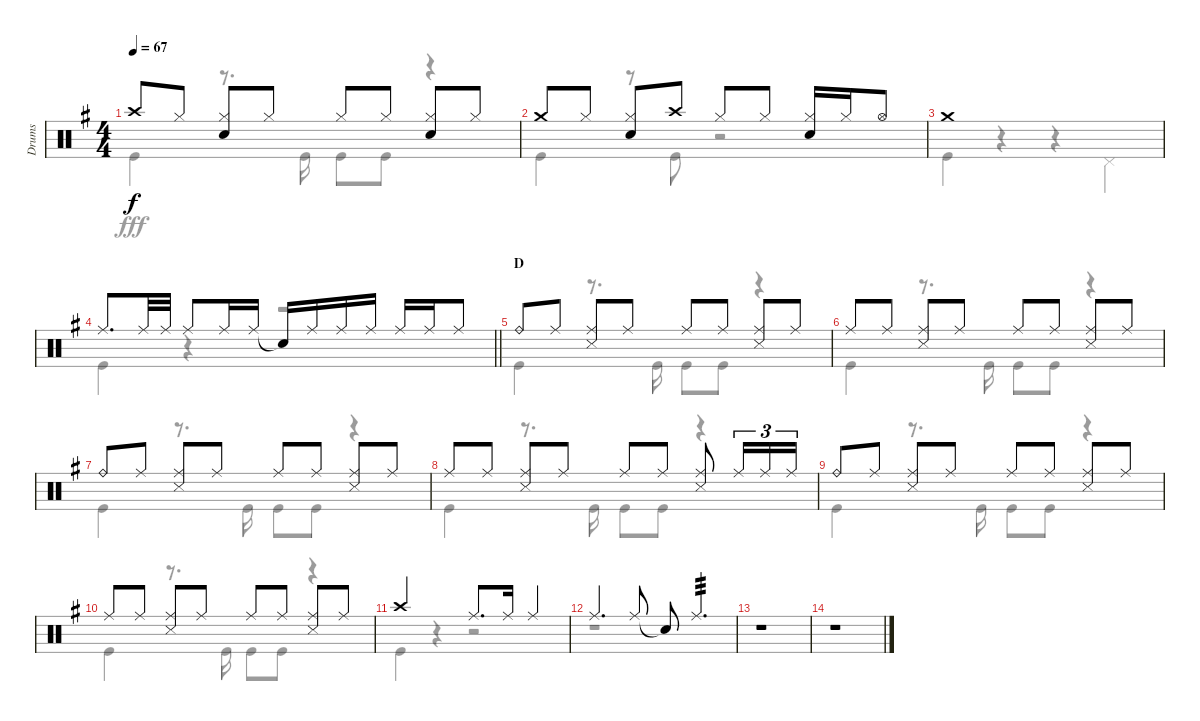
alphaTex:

\track ("Drums" "Drums") {instrument percussion}
\staff {score}
\articulation defaults
\voice
\ts (4 4)
\tempo 67
\clef neutral
\ks g "Crash high (hit)".8{dy f} "Hi-Hat (closed)".8
("Hi-Hat (closed)" "Snare (hit) 2").8 "Hi-Hat (closed)".8 "Hi-Hat (closed)".8 "Hi-Hat (closed)".8 ("Hi-Hat (closed)" "Snare (hit) 2").8 "Hi-Hat (closed)".8 |
"Crash medium (hit)".8 "Hi-Hat (closed)".8 ("Hi-Hat (closed)" "Snare (hit) 2").8 "Crash high (hit)".8 "Hi-Hat (closed)".8 "Hi-Hat (closed)".8 ("Hi-Hat (closed)" "Snare (hit) 2").16 "Hi-Hat (closed)".16 "Hi-Hat (open)".8 |
"Crash medium (hit)".1 |
\barLineRight lightlight "Ride (middle)".8{d} "Ride (middle)".32 "Ride (middle)".32 "Ride (middle)".8 "Ride (middle)".16 "Ride (middle)".16 "Snare (hit)"{t}.16 "Ride (middle)".16 "Ride (middle)".16 "Ride (middle)".16 "Ride (middle)".16 "Ride (middle)".16 "Ride (middle)".8
|
\section ("" "D")
"Ride (bell)".8 "Ride (middle)".8 ("Ride (middle)" "Snare (side stick) 3").8 "Ride (middle)".8 "Ride (middle)".8 "Ride (middle)".8 ("Ride (middle)" "Snare (side stick) 3").8 "Ride (middle)".8 |
"Ride (middle)".8 "Ride (middle)".8 ("Ride (middle)" "Snare (side stick) 3").8 "Ride (middle)".8 "Ride (middle)".8 "Ride (middle)".8 ("Ride (middle)" "Snare (side stick) 3").8 "Ride (middle)".8 |
"Ride (bell)".8 "Ride (middle)".8 ("Ride (middle)" "Snare (side stick) 3").8 "Ride (middle)".8 "Ride (middle)".8 "Ride (middle)".8 ("Ride (middle)" "Snare (side stick) 3").8 "Ride (middle)".8 |
"Ride (middle)".8 "Ride (middle)".8 ("Ride (middle)" "Snare (side stick) 3").8 "Ride (middle)".8 "Ride (middle)".8 "Ride (middle)".8 ("Ride (middle)" "Snare (side stick) 3").8 "Ride (middle)".16{tu (3 2)} "Ride (middle)".16{tu (3 2)} "Ride (middle)".16{tu (3 2)} |
"Ride (bell)".8 "Ride (middle)".8 ("Ride (middle)" "Snare (side stick) 3").8 "Ride (middle)".8 "Ride (middle)".8 "Ride (middle)".8 ("Ride (middle)" "Snare (side stick) 3").8 "Ride (middle)".8 |
"Ride (middle)".8 "Ride (middle)".8 ("Ride (middle)" "Snare (side stick) 3").8 "Ride (middle)".8 "Ride (middle)".8 "Ride (middle)".8 ("Ride (middle)" "Snare (side stick) 3").8 "Ride (middle)".8 |
"Crash high (hit)".2 "Ride (middle)".8{d} "Ride (middle)".16 "Ride (middle)".4 |
"Ride (middle)".4{d} "Ride (middle)".8 "Snare (hit)"{t}.8 "Ride (middle)".4{d tp 3} |
r.1 |
r.1
\voice
\clef neutral
\ottava regular
\simile none
\ks g "Kick (hit)".4{dy fff}
r.8{d} "Kick (hit)".16 "Kick (hit)".8 "Kick (hit)".8 r.4 |
"Kick (hit)".4 r.8 "Kick (hit)".8 r.2 |
"Kick (hit)".4 r.4 r.4 "Pedal Hi-Hat (hit)".4 |
\barLineRight lightlight "Kick (hit)".4
r.4 r.2 |
"Kick (hit)".4 r.8{d} "Kick (hit)".16 "Kick (hit)".8 "Kick (hit)".8 r.4 |
"Kick (hit)".4 r.8{d} "Kick (hit)".16 "Kick (hit)".8 "Kick (hit)".8 r.4 |
"Kick (hit)".4 r.8{d} "Kick (hit)".16 "Kick (hit)".8 "Kick (hit)".8 r.4 |
"Kick (hit)".4 r.8{d} "Kick (hit)".16 "Kick (hit)".8 "Kick (hit)".8 r.4 |
"Kick (hit)".4 r.8{d} "Kick (hit)".16 "Kick (hit)".8 "Kick (hit)".8 r.4 |
"Kick (hit)".4 r.8{d} "Kick (hit)".16 "Kick (hit)".8 "Kick (hit)".8 r.4 |
"Kick (hit)".4 r.4 r.2 |
r.1 |
r.1 |
r.1
